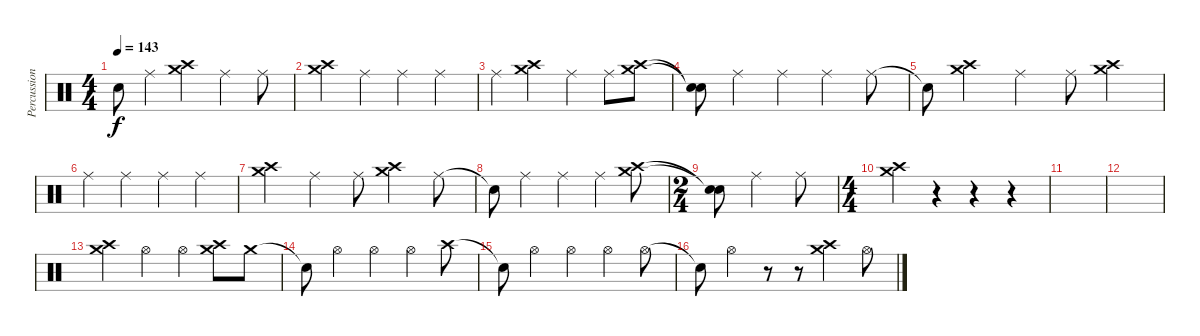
\track ("Percussion2" "Percussion") {instrument percussion}
\staff {score}
\articulation defaults
\ts (4 4)
\tempo 143
\clef neutral
\ks c "Snare (hit)"{t}.8{dy f} "Ride (middle)".4
("Crash high (hit)" "Crash medium (hit)").4 "Ride (middle)".4 "Ride (middle)".8 |
("Crash high (hit)" "Crash medium (hit)").4 "Ride (middle)".4 "Ride (middle)".4 "Ride (middle)".4 |
"Ride (middle)".4 ("Crash high (hit)" "Crash medium (hit)").4 "Ride (middle)".4 "Ride (middle)".8 ("Crash high (hit)" "Crash medium (hit)").8 |
("Snare (hit)"{t} "Snare (hit)"{t}).8 "Ride (middle)".4 "Ride (middle)".4 "Ride (middle)".4 "Ride (middle)".8 |
"Snare (hit)"{t}.8 ("Crash high (hit)" "Crash medium (hit)").4 "Ride (middle)".4 "Ride (middle)".8 ("Crash high (hit)" "Crash medium (hit)").4 |
"Ride (middle)".4 "Ride (middle)".4 "Ride (middle)".4 "Ride (middle)".4 |
("Crash high (hit)" "Crash medium (hit)").4 "Ride (middle)".4 "Ride (middle)".8 ("Crash high (hit)" "Crash medium (hit)").4 "Ride (middle)".8 |
"Snare (hit)"{t}.8 "Ride (middle)".4 "Ride (middle)".4 "Ride (middle)".4 ("Crash high (hit)" "Crash medium (hit)").8 |
\ts (2 4)
("Snare (hit)"{t} "Snare (hit)"{t}).8 "Ride (middle)".4 "Ride (middle)".8 |
\ts (4 4)
("Crash high (hit)" "Crash medium (hit)").4 r.4 r.4 r.4 |
|
|
("Crash high (hit)" "Crash medium (hit)").4 "Hi-Hat (open)".4 "Hi-Hat (open)".4 ("Crash high (hit)" "Crash medium (hit)").8 "Crash medium (hit)".8 |
"Snare (hit)"{t}.8 "Hi-Hat (open)".4 "Hi-Hat (open)".4 "Hi-Hat (open)".4 "Crash high (hit)".8 |
"Snare (hit)"{t}.8 "Hi-Hat (open)".4 "Hi-Hat (open)".4 "Hi-Hat (open)".4 "Hi-Hat (open)".8 |
"Snare (hit)"{t}.8 "Hi-Hat (open)".4 r.8 r.8 ("Crash high (hit)" "Crash medium (hit)").4 "Hi-Hat (open)".8
